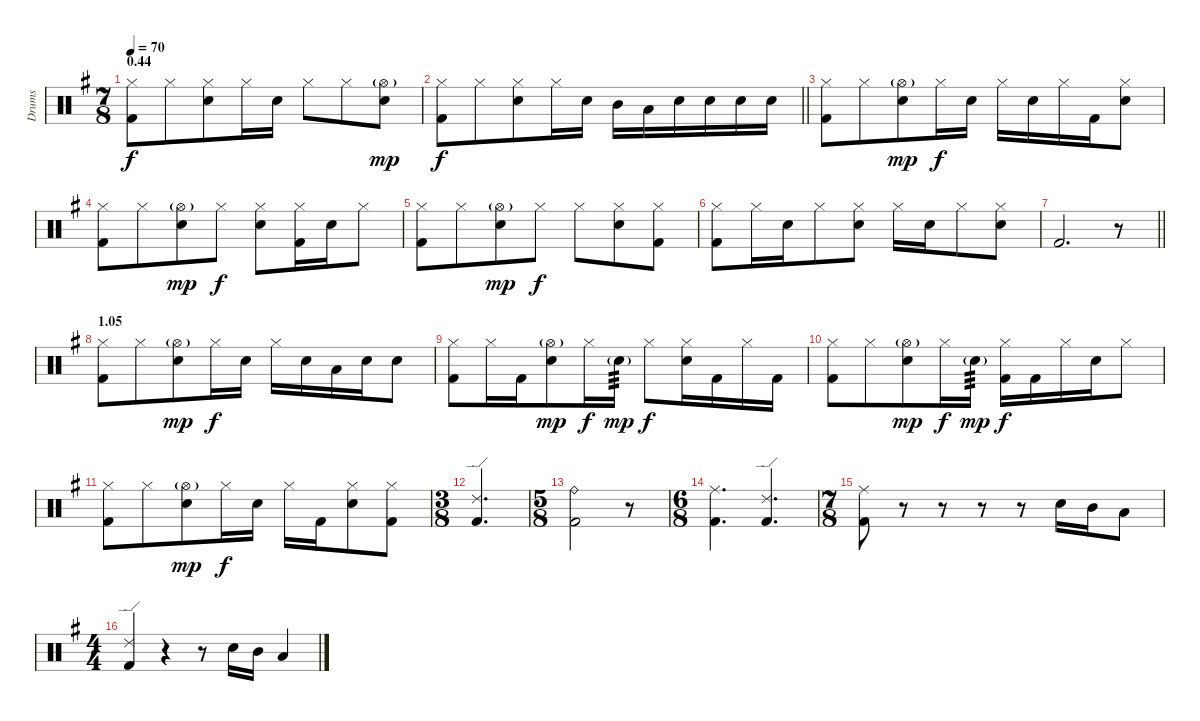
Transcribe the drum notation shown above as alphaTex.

\track ("Drums" "Drums") {instrument percussion}
\staff {score}
\articulation defaults
\ts (7 8)
\section ("" "0.44")
\tempo 70
\clef neutral
\ks g
("Hi-Hat (closed)" "Kick (hit) 2").8{dy f} "Hi-Hat (closed)".8 ("Hi-Hat (closed)" "Electric Snare (hit)").8 "Hi-Hat (closed)".16 "Electric Snare (hit)".16 "Hi-Hat (closed)".8 "Hi-Hat (closed)".8 ("Hi-Hat (open)"{g} "Electric Snare (hit)").8{dy mp} |
\barLineRight lightlight
("Hi-Hat (closed)" "Kick (hit) 2").8{dy f} "Hi-Hat (closed)".8 ("Hi-Hat (closed)" "Electric Snare (hit)").8 "Hi-Hat (closed)".16 "Electric Snare (hit)".16 "Mid Tom (hit)".16 "Low Tom (hit)".16 "Electric Snare (hit)".16 "Electric Snare (hit)".16 "Electric Snare (hit)".16 "Electric Snare (hit)".16 |
("Hi-Hat (closed)" "Kick (hit) 2").8 "Hi-Hat (closed)".8 ("Hi-Hat (open)"{g} "Electric Snare (hit)").8{dy mp} "Hi-Hat (closed)".16{dy f} "Electric Snare (hit)".16 "Hi-Hat (closed)".16 "Electric Snare (hit)".16 "Hi-Hat (closed)".16 "Kick (hit) 2".16 ("Hi-Hat (closed)" "Electric Snare (hit)").8 |
("Hi-Hat (closed)" "Kick (hit) 2").8 "Hi-Hat (closed)".8 ("Hi-Hat (open)"{g} "Electric Snare (hit)").8{dy mp} "Hi-Hat (closed)".8{dy f} ("Hi-Hat (closed)" "Electric Snare (hit)").8 ("Hi-Hat (closed)" "Kick (hit) 2").16 "Electric Snare (hit)".16 "Hi-Hat (closed)".8 |
("Hi-Hat (closed)" "Kick (hit) 2").8 "Hi-Hat (closed)".8 ("Hi-Hat (open)"{g} "Electric Snare (hit)").8{dy mp} "Hi-Hat (closed)".8{dy f} "Hi-Hat (closed)".8 ("Hi-Hat (closed)" "Electric Snare (hit)").8 ("Hi-Hat (closed)" "Kick (hit) 2").8 |
("Hi-Hat (closed)" "Kick (hit) 2").8 "Hi-Hat (closed)".16 "Electric Snare (hit)".16 "Hi-Hat (closed)".8 ("Hi-Hat (closed)" "Electric Snare (hit)").8 "Hi-Hat (closed)".16 "Electric Snare (hit)".16 "Hi-Hat (closed)".8 ("Hi-Hat (closed)" "Electric Snare (hit)").8 |
\barLineRight lightlight "Kick (hit) 2".2{d}
r.8 |
\section ("" "1.05")
("Hi-Hat (closed)" "Kick (hit) 2").8 "Hi-Hat (closed)".8 ("Hi-Hat (open)"{g} "Electric Snare (hit)").8{dy mp} "Hi-Hat (closed)".16{dy f} "Electric Snare (hit)".16 "Hi-Hat (closed)".16 "Electric Snare (hit)".16 "Low Tom (hit)".16 "Electric Snare (hit)".16 "Electric Snare (hit)".8 |
("Hi-Hat (closed)" "Kick (hit) 2").8 "Hi-Hat (closed)".16 "Kick (hit) 2".16 ("Hi-Hat (open)"{g} "Electric Snare (hit)").8{dy mp} "Hi-Hat (closed)".16{dy f} "Electric Snare (hit)"{g}.16{tp 3 dy mp} "Hi-Hat (closed)".8{dy f} ("Hi-Hat (closed)" "Electric Snare (hit)").16 "Kick (hit) 2".16 "Hi-Hat (closed)".16 "Kick (hit) 2".16 |
("Hi-Hat (closed)" "Kick (hit) 2").8 "Hi-Hat (closed)".8 ("Hi-Hat (open)"{g} "Electric Snare (hit)").8{dy mp} "Hi-Hat (closed)".16{dy f} "Electric Snare (hit)"{g}.16{tp 3 dy mp} ("Hi-Hat (closed)" "Kick (hit) 2").16{dy f} "Kick (hit) 2".16 "Hi-Hat (closed)".16 "Electric Snare (hit)".16 "Hi-Hat (closed)".8 |
("Hi-Hat (closed)" "Kick (hit) 2").8 "Hi-Hat (closed)".8 ("Hi-Hat (open)"{g} "Electric Snare (hit)").8{dy mp} "Hi-Hat (closed)".16{dy f} "Electric Snare (hit)".16 "Hi-Hat (closed)".16 "Kick (hit) 2".16 ("Hi-Hat (closed)" "Electric Snare (hit)").8 ("Hi-Hat (closed)" "Kick (hit) 2").8 |
\ts (3 8)
("Ride (edge) 2" "Kick (hit) 2").4{d} |
\ts (5 8)
("Ride (bell)" "Kick (hit) 2").2 r.8 |
\ts (6 8)
("Ride (middle)" "Kick (hit) 2").4{d} ("Ride (edge) 2" "Kick (hit) 2").4{d} |
\ts (7 8)
("Ride (middle)" "Kick (hit) 2").8 r.8 r.8 r.8 r.8 "Electric Snare (hit)".16 "Mid Tom (hit)".16 "Low Tom (hit)".8 |
\ts (4 4)
("Ride (edge) 2" "Kick (hit) 2").4 r.4 r.8 "Electric Snare (hit)".16 "Mid Tom (hit)".16 "Low Tom (hit)".4
